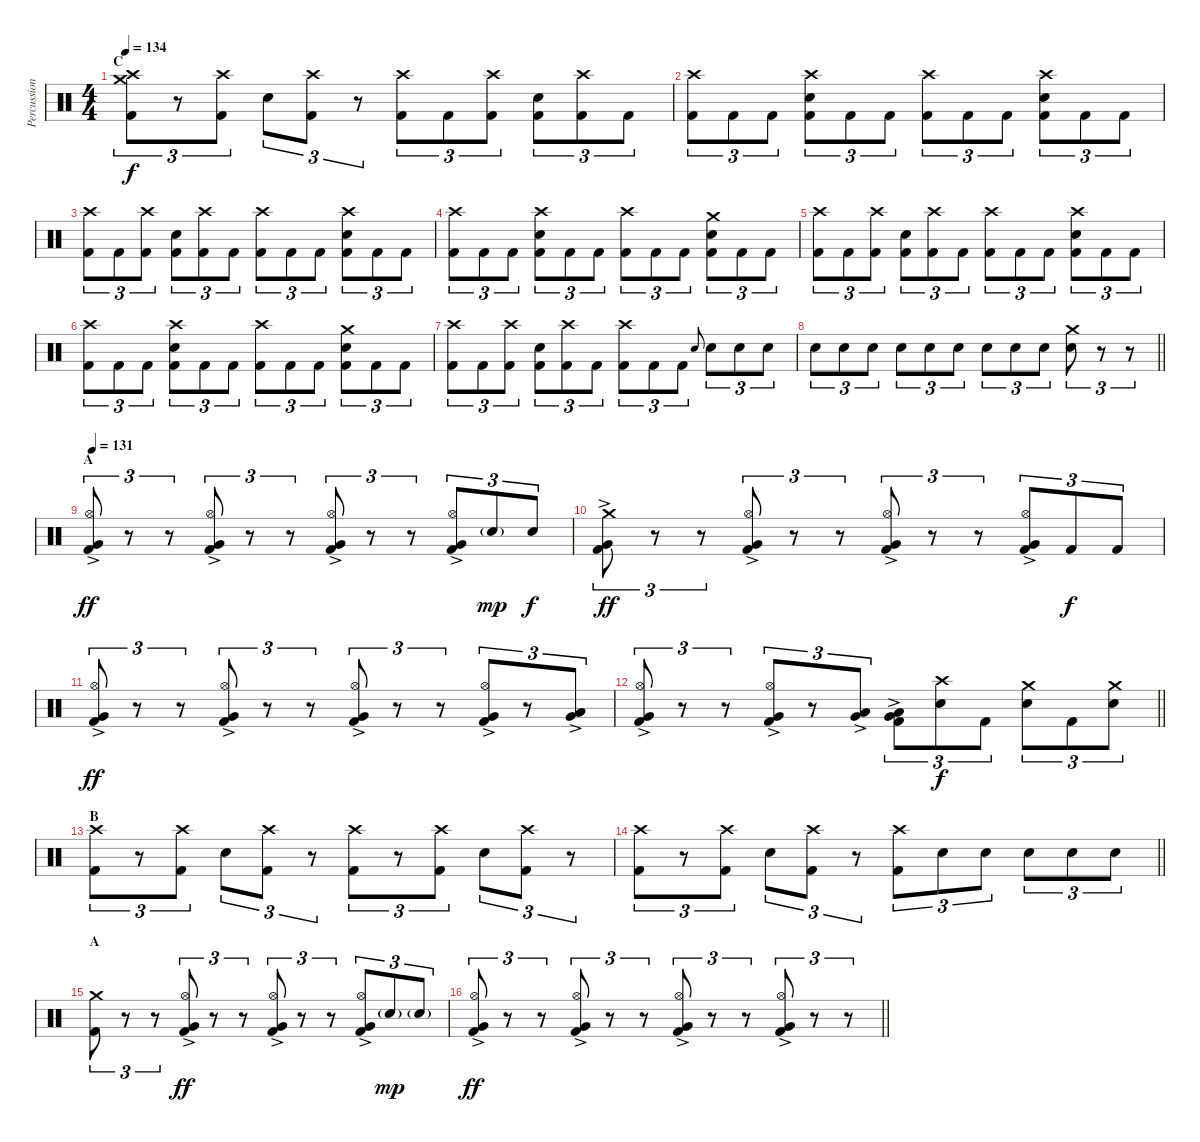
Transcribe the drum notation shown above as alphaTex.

\track ("Percussion" "Percussion") {instrument percussion}
\staff {score}
\articulation defaults
\ts (4 4)
\section ("" "C")
\tempo 134
\clef neutral
\ks c
("Crash medium (hit)" "Crash high (hit)" "Kick (hit) 2").8{tu (3 2) dy f} r.8{tu (3 2)} ("Crash high (hit)" "Kick (hit) 2").8{tu (3 2)} "Electric Snare (hit)".8{tu (3 2)} ("Crash high (hit)" "Kick (hit) 2").8{tu (3 2)} r.8{tu (3 2)} ("Crash high (hit)" "Kick (hit) 2").8{tu (3 2)} "Kick (hit) 2".8{tu (3 2)} ("Crash high (hit)" "Kick (hit) 2").8{tu (3 2)} ("Electric Snare (hit)" "Kick (hit) 2").8{tu (3 2)} ("Crash high (hit)" "Kick (hit) 2").8{tu (3 2)} "Kick (hit) 2".8{tu (3 2)} |
("Crash high (hit)" "Kick (hit) 2").8{tu (3 2)} "Kick (hit) 2".8{tu (3 2)} "Kick (hit) 2".8{tu (3 2)} ("Crash high (hit)" "Electric Snare (hit)" "Kick (hit) 2").8{tu (3 2)} "Kick (hit) 2".8{tu (3 2)} "Kick (hit) 2".8{tu (3 2)} ("Crash high (hit)" "Kick (hit) 2").8{tu (3 2)} "Kick (hit) 2".8{tu (3 2)} "Kick (hit) 2".8{tu (3 2)} ("Crash high (hit)" "Electric Snare (hit)" "Kick (hit) 2").8{tu (3 2)} "Kick (hit) 2".8{tu (3 2)} "Kick (hit) 2".8{tu (3 2)} |
("Crash high (hit)" "Kick (hit) 2").8{tu (3 2)} "Kick (hit) 2".8{tu (3 2)} ("Crash high (hit)" "Kick (hit) 2").8{tu (3 2)} ("Electric Snare (hit)" "Kick (hit) 2").8{tu (3 2)} ("Crash high (hit)" "Kick (hit) 2").8{tu (3 2)} "Kick (hit) 2".8{tu (3 2)} ("Crash high (hit)" "Kick (hit) 2").8{tu (3 2)} "Kick (hit) 2".8{tu (3 2)} "Kick (hit) 2".8{tu (3 2)} ("Crash high (hit)" "Electric Snare (hit)" "Kick (hit) 2").8{tu (3 2)} "Kick (hit) 2".8{tu (3 2)} "Kick (hit) 2".8{tu (3 2)} |
("Crash high (hit)" "Kick (hit) 2").8{tu (3 2)} "Kick (hit) 2".8{tu (3 2)} "Kick (hit) 2".8{tu (3 2)} ("Crash high (hit)" "Electric Snare (hit)" "Kick (hit) 2").8{tu (3 2)} "Kick (hit) 2".8{tu (3 2)} "Kick (hit) 2".8{tu (3 2)} ("Crash high (hit)" "Kick (hit) 2").8{tu (3 2)} "Kick (hit) 2".8{tu (3 2)} "Kick (hit) 2".8{tu (3 2)} ("Crash medium (hit)" "Electric Snare (hit)" "Kick (hit) 2").8{tu (3 2)} "Kick (hit) 2".8{tu (3 2)} "Kick (hit) 2".8{tu (3 2)} |
("Crash high (hit)" "Kick (hit) 2").8{tu (3 2)} "Kick (hit) 2".8{tu (3 2)} ("Crash high (hit)" "Kick (hit) 2").8{tu (3 2)} ("Electric Snare (hit)" "Kick (hit) 2").8{tu (3 2)} ("Crash high (hit)" "Kick (hit) 2").8{tu (3 2)} "Kick (hit) 2".8{tu (3 2)} ("Crash high (hit)" "Kick (hit) 2").8{tu (3 2)} "Kick (hit) 2".8{tu (3 2)} "Kick (hit) 2".8{tu (3 2)} ("Crash high (hit)" "Electric Snare (hit)" "Kick (hit) 2").8{tu (3 2)} "Kick (hit) 2".8{tu (3 2)} "Kick (hit) 2".8{tu (3 2)} |
("Crash high (hit)" "Kick (hit) 2").8{tu (3 2)} "Kick (hit) 2".8{tu (3 2)} "Kick (hit) 2".8{tu (3 2)} ("Crash high (hit)" "Electric Snare (hit)" "Kick (hit) 2").8{tu (3 2)} "Kick (hit) 2".8{tu (3 2)} "Kick (hit) 2".8{tu (3 2)} ("Crash high (hit)" "Kick (hit) 2").8{tu (3 2)} "Kick (hit) 2".8{tu (3 2)} "Kick (hit) 2".8{tu (3 2)} ("Crash medium (hit)" "Electric Snare (hit)" "Kick (hit) 2").8{tu (3 2)} "Kick (hit) 2".8{tu (3 2)} "Kick (hit) 2".8{tu (3 2)} |
("Crash high (hit)" "Kick (hit) 2").8{tu (3 2)} "Kick (hit) 2".8{tu (3 2)} ("Crash high (hit)" "Kick (hit) 2").8{tu (3 2)} ("Electric Snare (hit)" "Kick (hit) 2").8{tu (3 2)} ("Crash high (hit)" "Kick (hit) 2").8{tu (3 2)} "Kick (hit) 2".8{tu (3 2)} ("Crash high (hit)" "Kick (hit) 2").8{tu (3 2)} "Kick (hit) 2".8{tu (3 2)} "Kick (hit) 2".8{tu (3 2)} "Electric Snare (hit)".8{gr onbeat} "Electric Snare (hit)".8{tu (3 2)} "Electric Snare (hit)".8{tu (3 2)} "Electric Snare (hit)".8{tu (3 2)} |
\barLineRight lightlight "Electric Snare (hit)".8{tu (3 2)} "Electric Snare (hit)".8{tu (3 2)} "Electric Snare (hit)".8{tu (3 2)} "Electric Snare (hit)".8{tu (3 2)} "Electric Snare (hit)".8{tu (3 2)} "Electric Snare (hit)".8{tu (3 2)} "Electric Snare (hit)".8{tu (3 2)} "Electric Snare (hit)".8{tu (3 2)} "Electric Snare (hit)".8{tu (3 2)}
("Crash medium (hit)" "Electric Snare (hit)").8{tu (3 2)} r.8{tu (3 2)} r.8{tu (3 2)} |
\section ("" "A")
\tempo 131
("Hi-Hat (open)" "Very Low Tom (hit)"{ac} "Kick (hit) 2").8{tu (3 2) dy ff} r.8{tu (3 2)} r.8{tu (3 2)} ("Hi-Hat (open)" "Very Low Tom (hit)"{ac} "Kick (hit) 2").8{tu (3 2)} r.8{tu (3 2)} r.8{tu (3 2)} ("Hi-Hat (open)" "Very Low Tom (hit)"{ac} "Kick (hit) 2").8{tu (3 2)} r.8{tu (3 2)} r.8{tu (3 2)} ("Hi-Hat (open)" "Very Low Tom (hit)"{ac} "Kick (hit) 2").8{tu (3 2)} "Electric Snare (hit)"{g}.8{tu (3 2) dy mp} "Electric Snare (hit)".8{tu (3 2) dy f} |
("Crash medium (hit)" "Very Low Tom (hit)"{ac} "Kick (hit) 2").8{tu (3 2) dy ff} r.8{tu (3 2)} r.8{tu (3 2)} ("Hi-Hat (open)" "Very Low Tom (hit)"{ac} "Kick (hit) 2").8{tu (3 2)} r.8{tu (3 2)} r.8{tu (3 2)} ("Hi-Hat (open)" "Very Low Tom (hit)"{ac} "Kick (hit) 2").8{tu (3 2)} r.8{tu (3 2)} r.8{tu (3 2)} ("Hi-Hat (open)" "Very Low Tom (hit)"{ac} "Kick (hit) 2").8{tu (3 2)} "Kick (hit) 2".8{tu (3 2) dy f} "Kick (hit) 2".8{tu (3 2)} |
("Hi-Hat (open)" "Very Low Tom (hit)"{ac} "Kick (hit) 2").8{tu (3 2) dy ff} r.8{tu (3 2)} r.8{tu (3 2)} ("Hi-Hat (open)" "Very Low Tom (hit)"{ac} "Kick (hit) 2").8{tu (3 2)} r.8{tu (3 2)} r.8{tu (3 2)} ("Hi-Hat (open)" "Very Low Tom (hit)"{ac} "Kick (hit) 2").8{tu (3 2)} r.8{tu (3 2)} r.8{tu (3 2)} ("Hi-Hat (open)" "Very Low Tom (hit)"{ac} "Kick (hit) 2").8{tu (3 2)} r.8{tu (3 2)} ("Low Tom (hit)"{ac} "Very Low Tom (hit)"{ac}).8{tu (3 2)} |
\barLineRight lightlight
("Hi-Hat (open)" "Very Low Tom (hit)"{ac} "Kick (hit) 2").8{tu (3 2)} r.8{tu (3 2)} r.8{tu (3 2)} ("Hi-Hat (open)" "Very Low Tom (hit)"{ac} "Kick (hit) 2").8{tu (3 2)} r.8{tu (3 2)} ("Low Tom (hit)"{ac} "Very Low Tom (hit)"{ac}).8{tu (3 2)} ("Very Low Tom (hit)"{ac} "Low Floor Tom (hit)"{ac} "Kick (hit) 2").8{tu (3 2)} ("Crash high (hit)" "Electric Snare (hit)").8{tu (3 2) dy f} "Kick (hit) 2".8{tu (3 2)} ("Crash medium (hit)" "Electric Snare (hit)").8{tu (3 2)} "Kick (hit) 2".8{tu (3 2)} ("Crash medium (hit)" "Electric Snare (hit)").8{tu (3 2)} |
\section ("" "B")
("Crash high (hit)" "Kick (hit) 2").8{tu (3 2)} r.8{tu (3 2)} ("Crash high (hit)" "Kick (hit) 2").8{tu (3 2)} "Electric Snare (hit)".8{tu (3 2)} ("Crash high (hit)" "Kick (hit) 2").8{tu (3 2)} r.8{tu (3 2)} ("Crash high (hit)" "Kick (hit) 2").8{tu (3 2)} r.8{tu (3 2)} ("Crash high (hit)" "Kick (hit) 2").8{tu (3 2)} "Electric Snare (hit)".8{tu (3 2)} ("Crash high (hit)" "Kick (hit) 2").8{tu (3 2)} r.8{tu (3 2)} |
\barLineRight lightlight
("Crash high (hit)" "Kick (hit) 2").8{tu (3 2)} r.8{tu (3 2)} ("Crash high (hit)" "Kick (hit) 2").8{tu (3 2)} "Electric Snare (hit)".8{tu (3 2)} ("Crash high (hit)" "Kick (hit) 2").8{tu (3 2)} r.8{tu (3 2)} ("Crash high (hit)" "Kick (hit) 2").8{tu (3 2)} "Electric Snare (hit)".8{tu (3 2)} "Electric Snare (hit)".8{tu (3 2)} "Electric Snare (hit)".8{tu (3 2)} "Electric Snare (hit)".8{tu (3 2)} "Electric Snare (hit)".8{tu (3 2)} |
\section ("" "A")
("Crash medium (hit)" "Kick (hit) 2").8{tu (3 2)} r.8{tu (3 2)} r.8{tu (3 2)} ("Hi-Hat (open)" "Very Low Tom (hit)"{ac} "Kick (hit) 2").8{tu (3 2) dy ff} r.8{tu (3 2)} r.8{tu (3 2)} ("Hi-Hat (open)" "Very Low Tom (hit)"{ac} "Kick (hit) 2").8{tu (3 2)} r.8{tu (3 2)} r.8{tu (3 2)} ("Hi-Hat (open)" "Very Low Tom (hit)"{ac} "Kick (hit) 2").8{tu (3 2)} "Electric Snare (hit)"{g}.8{tu (3 2) dy mp} "Electric Snare (hit)"{g}.8{tu (3 2)} |
\barLineRight lightlight
("Hi-Hat (open)" "Very Low Tom (hit)"{ac} "Kick (hit) 2").8{tu (3 2) dy ff} r.8{tu (3 2)} r.8{tu (3 2)} ("Hi-Hat (open)" "Very Low Tom (hit)"{ac} "Kick (hit) 2").8{tu (3 2)} r.8{tu (3 2)} r.8{tu (3 2)} ("Hi-Hat (open)" "Very Low Tom (hit)"{ac} "Kick (hit) 2").8{tu (3 2)} r.8{tu (3 2)} r.8{tu (3 2)} ("Hi-Hat (open)" "Very Low Tom (hit)"{ac} "Kick (hit) 2").8{tu (3 2)} r.8{tu (3 2)} r.8{tu (3 2)}
